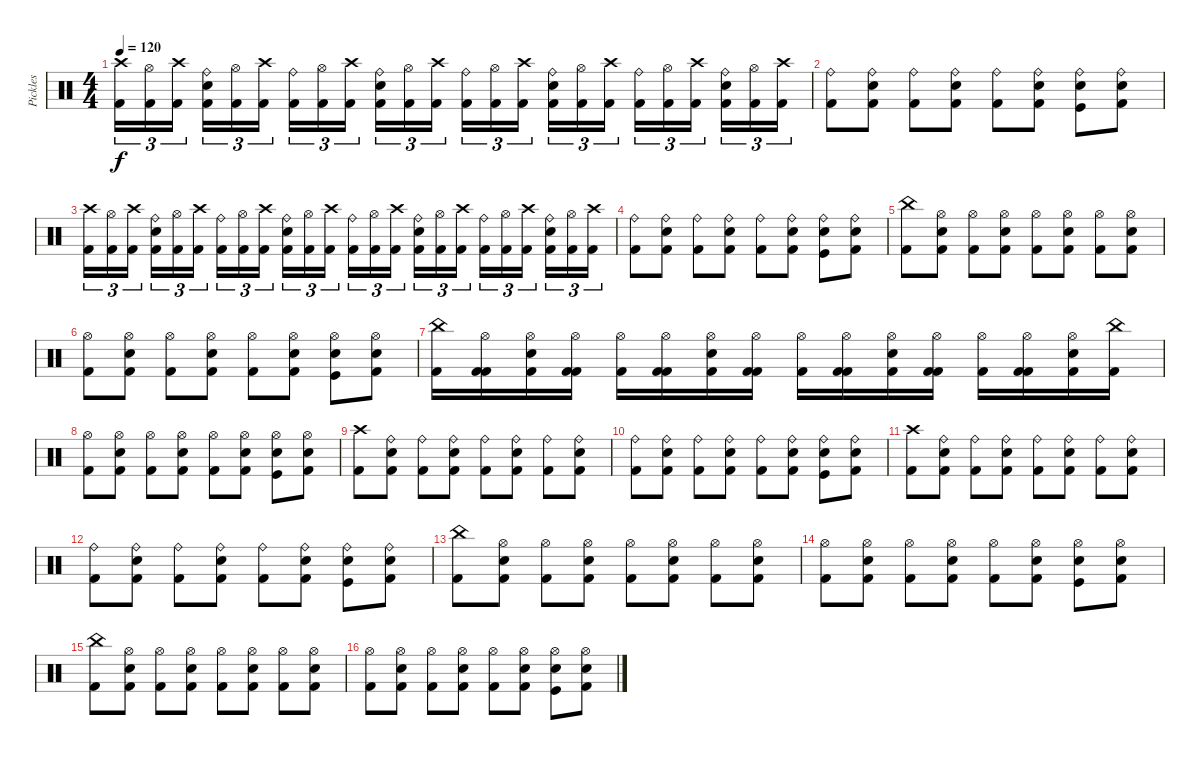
\track ("Pickles" "Pickles") {instrument percussion}
\staff {score}
\articulation defaults
\ts (4 4)
\tempo 120
\clef neutral
\ks aminor
("Kick (hit) 2" "Crash high (hit)").16{tu (3 2) dy f} ("Kick (hit) 2" "Hi-Hat (open)").16{tu (3 2)} ("Kick (hit) 2" "Crash high (hit)").16{tu (3 2) beam splitsecondary} ("Snare (hit) 2" "Kick (hit) 2" "Ride (bell)").16{tu (3 2)} ("Kick (hit) 2" "Hi-Hat (open)").16{tu (3 2)} ("Kick (hit) 2" "Crash high (hit)").16{tu (3 2)} ("Kick (hit) 2" "Ride (bell)").16{tu (3 2)} ("Kick (hit) 2" "Hi-Hat (open)").16{tu (3 2)} ("Kick (hit) 2" "Crash high (hit)").16{tu (3 2) beam splitsecondary} ("Snare (hit) 2" "Kick (hit) 2" "Ride (bell)").16{tu (3 2)} ("Kick (hit) 2" "Hi-Hat (open)").16{tu (3 2)} ("Kick (hit) 2" "Crash high (hit)").16{tu (3 2)} ("Kick (hit) 2" "Ride (bell)").16{tu (3 2)} ("Kick (hit) 2" "Hi-Hat (open)").16{tu (3 2)} ("Kick (hit) 2" "Crash high (hit)").16{tu (3 2) beam splitsecondary} ("Snare (hit) 2" "Kick (hit) 2" "Ride (bell)").16{tu (3 2)} ("Kick (hit) 2" "Hi-Hat (open)").16{tu (3 2)} ("Kick (hit) 2" "Crash high (hit)").16{tu (3 2)} ("Kick (hit) 2" "Ride (bell)").16{tu (3 2)} ("Kick (hit) 2" "Hi-Hat (open)").16{tu (3 2)} ("Kick (hit) 2" "Crash high (hit)").16{tu (3 2) beam splitsecondary} ("Snare (hit) 2" "Kick (hit) 2" "Ride (bell)").16{tu (3 2)} ("Kick (hit) 2" "Hi-Hat (open)").16{tu (3 2)} ("Kick (hit) 2" "Crash high (hit)").16{tu (3 2)} |
("Kick (hit) 2" "Ride (bell)").8 ("Snare (hit) 2" "Kick (hit) 2" "Ride (bell)").8 ("Kick (hit) 2" "Ride (bell)").8 ("Snare (hit) 2" "Kick (hit) 2" "Ride (bell)").8 ("Kick (hit) 2" "Ride (bell)").8 ("Snare (hit) 2" "Kick (hit) 2" "Ride (bell)").8 ("Snare (hit) 2" "Kick (hit)" "Ride (bell)").8 ("Snare (hit) 2" "Kick (hit) 2" "Ride (bell)").8 |
("Kick (hit) 2" "Crash high (hit)").16{tu (3 2)} ("Kick (hit) 2" "Hi-Hat (open)").16{tu (3 2)} ("Kick (hit) 2" "Crash high (hit)").16{tu (3 2) beam splitsecondary} ("Snare (hit) 2" "Kick (hit) 2" "Ride (bell)").16{tu (3 2)} ("Kick (hit) 2" "Hi-Hat (open)").16{tu (3 2)} ("Kick (hit) 2" "Crash high (hit)").16{tu (3 2)} ("Kick (hit) 2" "Ride (bell)").16{tu (3 2)} ("Kick (hit) 2" "Hi-Hat (open)").16{tu (3 2)} ("Kick (hit) 2" "Crash high (hit)").16{tu (3 2) beam splitsecondary} ("Snare (hit) 2" "Kick (hit) 2" "Ride (bell)").16{tu (3 2)} ("Kick (hit) 2" "Hi-Hat (open)").16{tu (3 2)} ("Kick (hit) 2" "Crash high (hit)").16{tu (3 2)} ("Kick (hit) 2" "Ride (bell)").16{tu (3 2)} ("Kick (hit) 2" "Hi-Hat (open)").16{tu (3 2)} ("Kick (hit) 2" "Crash high (hit)").16{tu (3 2) beam splitsecondary} ("Snare (hit) 2" "Kick (hit) 2" "Ride (bell)").16{tu (3 2)} ("Kick (hit) 2" "Hi-Hat (open)").16{tu (3 2)} ("Kick (hit) 2" "Crash high (hit)").16{tu (3 2)} ("Kick (hit) 2" "Ride (bell)").16{tu (3 2)} ("Kick (hit) 2" "Hi-Hat (open)").16{tu (3 2)} ("Kick (hit) 2" "Crash high (hit)").16{tu (3 2) beam splitsecondary} ("Snare (hit) 2" "Kick (hit) 2" "Ride (bell)").16{tu (3 2)} ("Kick (hit) 2" "Hi-Hat (open)").16{tu (3 2)} ("Kick (hit) 2" "Crash high (hit)").16{tu (3 2)} |
("Kick (hit) 2" "Ride (bell)").8 ("Snare (hit) 2" "Kick (hit) 2" "Ride (bell)").8 ("Kick (hit) 2" "Ride (bell)").8 ("Snare (hit) 2" "Kick (hit) 2" "Ride (bell)").8 ("Kick (hit) 2" "Ride (bell)").8 ("Snare (hit) 2" "Kick (hit) 2" "Ride (bell)").8 ("Snare (hit) 2" "Kick (hit)" "Ride (bell)").8 ("Snare (hit) 2" "Kick (hit) 2" "Ride (bell)").8 |
("Kick (hit) 2" "China (hit)").8 ("Snare (hit) 2" "Kick (hit) 2" "Hi-Hat (open)").8 ("Kick (hit) 2" "Hi-Hat (open)").8 ("Snare (hit) 2" "Kick (hit) 2" "Hi-Hat (open)").8 ("Kick (hit) 2" "Hi-Hat (open)").8 ("Snare (hit) 2" "Kick (hit) 2" "Hi-Hat (open)").8 ("Kick (hit) 2" "Hi-Hat (open)").8 ("Snare (hit) 2" "Kick (hit) 2" "Hi-Hat (open)").8 |
("Kick (hit) 2" "Hi-Hat (open)").8 ("Snare (hit) 2" "Kick (hit) 2" "Hi-Hat (open)").8 ("Kick (hit) 2" "Hi-Hat (open)").8 ("Snare (hit) 2" "Kick (hit) 2" "Hi-Hat (open)").8 ("Kick (hit) 2" "Hi-Hat (open)").8 ("Snare (hit) 2" "Kick (hit) 2" "Hi-Hat (open)").8 ("Snare (hit) 2" "Kick (hit)" "Hi-Hat (open)").8 ("Snare (hit) 2" "Kick (hit) 2" "Hi-Hat (open)").8 |
("Kick (hit) 2" "China (hit)").16 ("Kick (hit) 2" "Kick (hit) 2" "Hi-Hat (open)").16 ("Snare (hit) 2" "Kick (hit) 2" "Hi-Hat (open)").16 ("Kick (hit) 2" "Kick (hit) 2" "Hi-Hat (open)").16 ("Kick (hit) 2" "Hi-Hat (open)").16 ("Kick (hit) 2" "Kick (hit) 2" "Hi-Hat (open)").16 ("Snare (hit) 2" "Kick (hit) 2" "Hi-Hat (open)").16 ("Kick (hit) 2" "Kick (hit) 2" "Hi-Hat (open)").16 ("Kick (hit) 2" "Hi-Hat (open)").16 ("Kick (hit) 2" "Kick (hit) 2" "Hi-Hat (open)").16 ("Snare (hit) 2" "Kick (hit) 2" "Hi-Hat (open)").16 ("Kick (hit) 2" "Kick (hit) 2" "Hi-Hat (open)").16 ("Kick (hit) 2" "Hi-Hat (open)").16 ("Kick (hit) 2" "Kick (hit) 2" "Hi-Hat (open)").16 ("Snare (hit) 2" "Kick (hit) 2" "Hi-Hat (open)").16 ("Kick (hit) 2" "China (hit)").16 |
("Kick (hit) 2" "Hi-Hat (open)").8 ("Snare (hit) 2" "Kick (hit) 2" "Hi-Hat (open)").8 ("Kick (hit) 2" "Hi-Hat (open)").8 ("Snare (hit) 2" "Kick (hit) 2" "Hi-Hat (open)").8 ("Kick (hit) 2" "Hi-Hat (open)").8 ("Snare (hit) 2" "Kick (hit) 2" "Hi-Hat (open)").8 ("Snare (hit) 2" "Kick (hit)" "Hi-Hat (open)").8 ("Snare (hit) 2" "Kick (hit) 2" "Hi-Hat (open)").8 |
("Kick (hit) 2" "Crash high (hit)").8 ("Snare (hit) 2" "Kick (hit) 2" "Ride (bell)").8 ("Kick (hit) 2" "Ride (bell)").8 ("Snare (hit) 2" "Kick (hit) 2" "Ride (bell)").8 ("Kick (hit) 2" "Ride (bell)").8 ("Snare (hit) 2" "Kick (hit) 2" "Ride (bell)").8 ("Kick (hit) 2" "Ride (bell)").8 ("Snare (hit) 2" "Kick (hit) 2" "Ride (bell)").8 |
("Kick (hit) 2" "Ride (bell)").8 ("Snare (hit) 2" "Kick (hit) 2" "Ride (bell)").8 ("Kick (hit) 2" "Ride (bell)").8 ("Snare (hit) 2" "Kick (hit) 2" "Ride (bell)").8 ("Kick (hit) 2" "Ride (bell)").8 ("Snare (hit) 2" "Kick (hit) 2" "Ride (bell)").8 ("Snare (hit) 2" "Kick (hit)" "Ride (bell)").8 ("Snare (hit) 2" "Kick (hit) 2" "Ride (bell)").8 |
("Kick (hit) 2" "Crash high (hit)").8 ("Snare (hit) 2" "Kick (hit) 2" "Ride (bell)").8 ("Kick (hit) 2" "Ride (bell)").8 ("Snare (hit) 2" "Kick (hit) 2" "Ride (bell)").8 ("Kick (hit) 2" "Ride (bell)").8 ("Snare (hit) 2" "Kick (hit) 2" "Ride (bell)").8 ("Kick (hit) 2" "Ride (bell)").8 ("Snare (hit) 2" "Kick (hit) 2" "Ride (bell)").8 |
("Kick (hit) 2" "Ride (bell)").8 ("Snare (hit) 2" "Kick (hit) 2" "Ride (bell)").8 ("Kick (hit) 2" "Ride (bell)").8 ("Snare (hit) 2" "Kick (hit) 2" "Ride (bell)").8 ("Kick (hit) 2" "Ride (bell)").8 ("Snare (hit) 2" "Kick (hit) 2" "Ride (bell)").8 ("Snare (hit) 2" "Kick (hit)" "Ride (bell)").8 ("Snare (hit) 2" "Kick (hit) 2" "Ride (bell)").8 |
("Kick (hit) 2" "China (hit)").8 ("Snare (hit) 2" "Kick (hit) 2" "Hi-Hat (open)").8 ("Kick (hit) 2" "Hi-Hat (open)").8 ("Snare (hit) 2" "Kick (hit) 2" "Hi-Hat (open)").8 ("Kick (hit) 2" "Hi-Hat (open)").8 ("Snare (hit) 2" "Kick (hit) 2" "Hi-Hat (open)").8 ("Kick (hit) 2" "Hi-Hat (open)").8 ("Snare (hit) 2" "Kick (hit) 2" "Hi-Hat (open)").8 |
("Kick (hit) 2" "Hi-Hat (open)").8 ("Snare (hit) 2" "Kick (hit) 2" "Hi-Hat (open)").8 ("Kick (hit) 2" "Hi-Hat (open)").8 ("Snare (hit) 2" "Kick (hit) 2" "Hi-Hat (open)").8 ("Kick (hit) 2" "Hi-Hat (open)").8 ("Snare (hit) 2" "Kick (hit) 2" "Hi-Hat (open)").8 ("Snare (hit) 2" "Kick (hit)" "Hi-Hat (open)").8 ("Snare (hit) 2" "Kick (hit) 2" "Hi-Hat (open)").8 |
("Kick (hit) 2" "China (hit)").8 ("Snare (hit) 2" "Kick (hit) 2" "Hi-Hat (open)").8 ("Kick (hit) 2" "Hi-Hat (open)").8 ("Snare (hit) 2" "Kick (hit) 2" "Hi-Hat (open)").8 ("Kick (hit) 2" "Hi-Hat (open)").8 ("Snare (hit) 2" "Kick (hit) 2" "Hi-Hat (open)").8 ("Kick (hit) 2" "Hi-Hat (open)").8 ("Snare (hit) 2" "Kick (hit) 2" "Hi-Hat (open)").8 |
("Kick (hit) 2" "Hi-Hat (open)").8 ("Snare (hit) 2" "Kick (hit) 2" "Hi-Hat (open)").8 ("Kick (hit) 2" "Hi-Hat (open)").8 ("Snare (hit) 2" "Kick (hit) 2" "Hi-Hat (open)").8 ("Kick (hit) 2" "Hi-Hat (open)").8 ("Snare (hit) 2" "Kick (hit) 2" "Hi-Hat (open)").8 ("Snare (hit) 2" "Kick (hit)" "Hi-Hat (open)").8 ("Snare (hit) 2" "Kick (hit) 2" "Hi-Hat (open)").8
